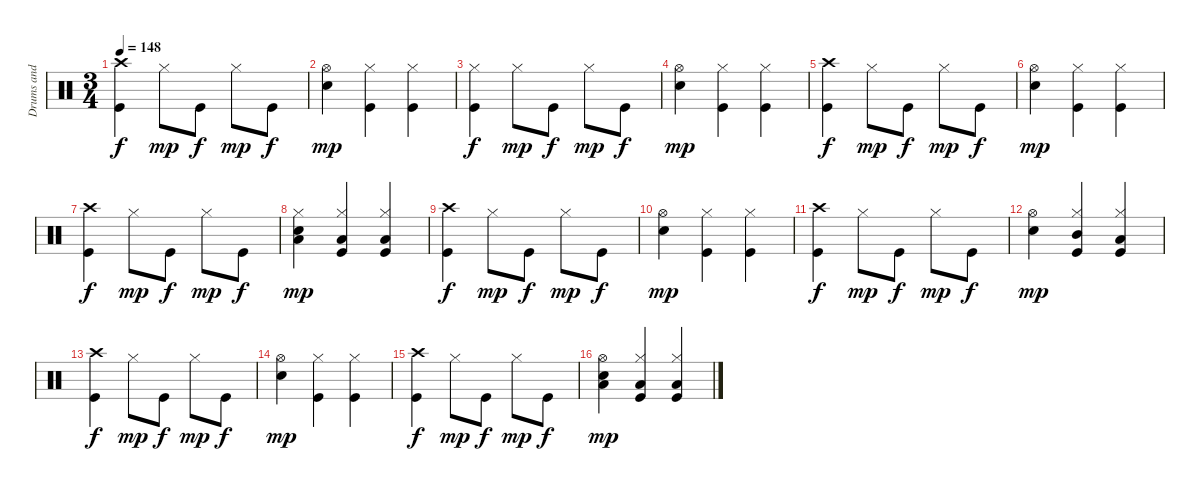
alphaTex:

\track ("Drums and percussion" "Drums and ") {instrument percussion}
\staff {score}
\articulation defaults
\ts (3 4)
\tempo 148
\clef neutral
\ks c
("Crash high (hit)" "Kick (hit)").4{dy f} "Hi-Hat (closed)".8{dy mp} "Kick (hit)".8{dy f} "Hi-Hat (closed)".8{dy mp} "Kick (hit)".8{dy f} |
("Hi-Hat (open)" "Electric Snare (hit)").4{dy mp} ("Hi-Hat (closed)" "Kick (hit)").4 ("Hi-Hat (closed)" "Kick (hit)").4 |
("Hi-Hat (closed)" "Kick (hit)").4{dy f} "Hi-Hat (closed)".8{dy mp} "Kick (hit)".8{dy f} "Hi-Hat (closed)".8{dy mp} "Kick (hit)".8{dy f} |
("Hi-Hat (open)" "Electric Snare (hit)").4{dy mp} ("Hi-Hat (closed)" "Kick (hit)").4 ("Hi-Hat (closed)" "Kick (hit)").4 |
("Crash high (hit)" "Kick (hit)").4{dy f} "Hi-Hat (closed)".8{dy mp} "Kick (hit)".8{dy f} "Hi-Hat (closed)".8{dy mp} "Kick (hit)".8{dy f} |
("Hi-Hat (open)" "Electric Snare (hit)").4{dy mp} ("Hi-Hat (closed)" "Kick (hit)").4 ("Hi-Hat (closed)" "Kick (hit)").4 |
("Crash high (hit)" "Kick (hit)").4{dy f} "Hi-Hat (closed)".8{dy mp} "Kick (hit)".8{dy f} "Hi-Hat (closed)".8{dy mp} "Kick (hit)".8{dy f} |
("Hi-Hat (closed)" "Low Tom (hit)" "Electric Snare (hit)").4{dy mp} ("Hi-Hat (closed)" "Low Tom (hit)" "Kick (hit)").4 ("Hi-Hat (closed)" "Low Tom (hit)" "Kick (hit)").4 |
("Crash high (hit)" "Kick (hit)").4{dy f} "Hi-Hat (closed)".8{dy mp} "Kick (hit)".8{dy f} "Hi-Hat (closed)".8{dy mp} "Kick (hit)".8{dy f} |
("Hi-Hat (open)" "Electric Snare (hit)").4{dy mp} ("Hi-Hat (closed)" "Kick (hit)").4 ("Hi-Hat (closed)" "Kick (hit)").4 |
("Crash high (hit)" "Kick (hit)").4{dy f} "Hi-Hat (closed)".8{dy mp} "Kick (hit)".8{dy f} "Hi-Hat (closed)".8{dy mp} "Kick (hit)".8{dy f} |
("Hi-Hat (open)" "Electric Snare (hit)").4{dy mp} ("Hi-Hat (closed)" "Mid Tom (hit)" "Kick (hit)").4 ("Hi-Hat (closed)" "Low Tom (hit)" "Kick (hit)").4 |
("Crash high (hit)" "Kick (hit)").4{dy f} "Hi-Hat (closed)".8{dy mp} "Kick (hit)".8{dy f} "Hi-Hat (closed)".8{dy mp} "Kick (hit)".8{dy f} |
("Hi-Hat (open)" "Electric Snare (hit)").4{dy mp} ("Hi-Hat (closed)" "Kick (hit)").4 ("Hi-Hat (closed)" "Kick (hit)").4 |
("Crash high (hit)" "Kick (hit)").4{dy f} "Hi-Hat (closed)".8{dy mp} "Kick (hit)".8{dy f} "Hi-Hat (closed)".8{dy mp} "Kick (hit)".8{dy f} |
("Hi-Hat (open)" "Low Floor Tom (hit)" "Electric Snare (hit)").4{dy mp} ("Hi-Hat (closed)" "Low Floor Tom (hit)" "Kick (hit)").4 ("Hi-Hat (closed)" "Low Floor Tom (hit)" "Kick (hit)").4
